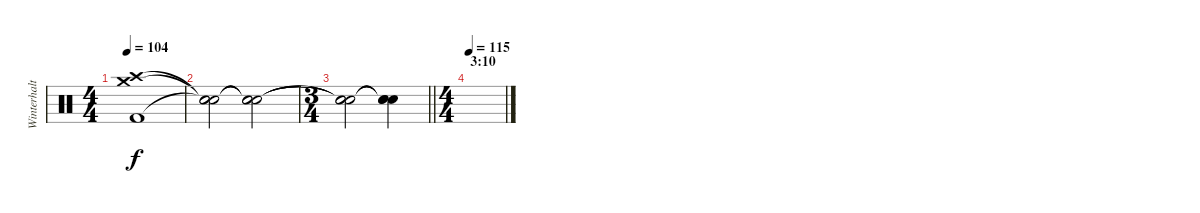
\track ("Winterhalten" "Winterhalt") {instrument percussion}
\staff {score}
\articulation defaults
\ts (4 4)
\tempo 104
\clef neutral
\ks c
("Kick (hit) 2" "Crash medium (hit)" "Crash high (hit)").1{dy f} |
("Snare (hit)"{t} "Snare (hit)"{t} "Snare (hit)"{t}).2 ("Snare (hit)"{t} "Snare (hit)"{t} "Snare (hit)"{t}).2 |
\ts (3 4)
\barLineRight lightlight
("Snare (hit)"{t} "Snare (hit)"{t} "Snare (hit)"{t}).2 ("Snare (hit)"{t} "Snare (hit)"{t} "Snare (hit)"{t}).4 |
\ts (4 4)
\section ("" "3:10")
\tempo 115
